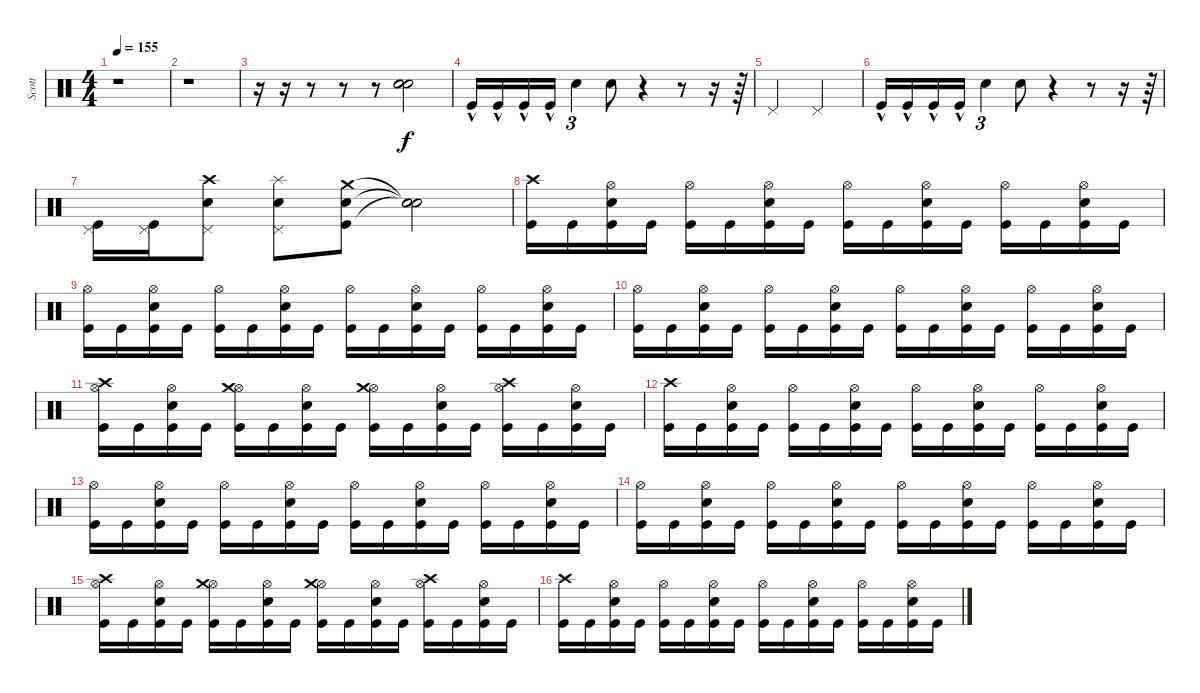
\track ("Scott" "Scott") {instrument percussion}
\staff {score}
\articulation defaults
\ts (4 4)
\tempo 155
\clef neutral
\ks c
r.1{dy f} |
r.1 |
r.16 r.16 r.8 r.8 r.8 ("Snare (hit)" "Snare (hit)" "Snare (hit)").2 |
"Kick (hit)"{hac}.16 "Kick (hit)"{hac}.16 "Kick (hit)"{hac}.16 "Kick (hit)"{hac}.16 "Snare (hit) 2".4{tu (3 2)} "Snare (hit) 2".8 r.4 r.8 r.16 r.64 |
"Pedal Hi-Hat (hit)".2 "Pedal Hi-Hat (hit)".2 |
"Kick (hit)"{hac}.16 "Kick (hit)"{hac}.16 "Kick (hit)"{hac}.16 "Kick (hit)"{hac}.16 "Snare (hit) 2".4{tu (3 2)} "Snare (hit) 2".8 r.4 r.8 r.16 r.64 |
("Pedal Hi-Hat (hit)" "Kick (hit)").16 ("Pedal Hi-Hat (hit)" "Kick (hit)").16 ("Crash high (hit)" "Pedal Hi-Hat (hit)" "Snare (hit) 2").8 ("Splash (hit)" "Pedal Hi-Hat (hit)" "Snare (hit) 2").8 ("Crash medium (hit)" "Kick (hit)" "Snare (hit) 2").8 ("Snare (hit)"{t} "Snare (hit)"{t} "Snare (hit)"{t}).2 |
("Crash high (hit)" "Kick (hit)").16 "Kick (hit)".16 ("Hi-Hat (open)" "Snare (hit) 2" "Kick (hit)").16 "Kick (hit)".16 ("Hi-Hat (open)" "Kick (hit)").16 "Kick (hit)".16 ("Hi-Hat (open)" "Snare (hit) 2" "Kick (hit)").16 "Kick (hit)".16 ("Hi-Hat (open)" "Kick (hit)").16 "Kick (hit)".16 ("Hi-Hat (open)" "Snare (hit) 2" "Kick (hit)").16 "Kick (hit)".16 ("Hi-Hat (open)" "Kick (hit)").16 "Kick (hit)".16 ("Hi-Hat (open)" "Snare (hit) 2" "Kick (hit)").16 "Kick (hit)".16 |
("Hi-Hat (open)" "Kick (hit)").16 "Kick (hit)".16 ("Hi-Hat (open)" "Snare (hit) 2" "Kick (hit)").16 "Kick (hit)".16 ("Hi-Hat (open)" "Kick (hit)").16 "Kick (hit)".16 ("Hi-Hat (open)" "Snare (hit) 2" "Kick (hit)").16 "Kick (hit)".16 ("Hi-Hat (open)" "Kick (hit)").16 "Kick (hit)".16 ("Hi-Hat (open)" "Snare (hit) 2" "Kick (hit)").16 "Kick (hit)".16 ("Hi-Hat (open)" "Kick (hit)").16 "Kick (hit)".16 ("Hi-Hat (open)" "Snare (hit) 2" "Kick (hit)").16 "Kick (hit)".16 |
("Hi-Hat (open)" "Kick (hit)").16 "Kick (hit)".16 ("Hi-Hat (open)" "Snare (hit) 2" "Kick (hit)").16 "Kick (hit)".16 ("Hi-Hat (open)" "Kick (hit)").16 "Kick (hit)".16 ("Hi-Hat (open)" "Snare (hit) 2" "Kick (hit)").16 "Kick (hit)".16 ("Hi-Hat (open)" "Kick (hit)").16 "Kick (hit)".16 ("Hi-Hat (open)" "Snare (hit) 2" "Kick (hit)").16 "Kick (hit)".16 ("Hi-Hat (open)" "Kick (hit)").16 "Kick (hit)".16 ("Hi-Hat (open)" "Snare (hit) 2" "Kick (hit)").16 "Kick (hit)".16 |
("Hi-Hat (open)" "Crash high (hit)" "Kick (hit)").16 "Kick (hit)".16 ("Hi-Hat (open)" "Snare (hit) 2" "Kick (hit)").16 "Kick (hit)".16 ("Hi-Hat (open)" "Crash medium (hit)" "Kick (hit)").16 "Kick (hit)".16 ("Hi-Hat (open)" "Snare (hit) 2" "Kick (hit)").16 "Kick (hit)".16 ("Hi-Hat (open)" "Crash medium (hit)" "Kick (hit)").16 "Kick (hit)".16 ("Hi-Hat (open)" "Snare (hit) 2" "Kick (hit)").16 "Kick (hit)".16 ("Hi-Hat (open)" "Crash high (hit)" "Kick (hit)").16 "Kick (hit)".16 ("Hi-Hat (open)" "Snare (hit) 2" "Kick (hit)").16 "Kick (hit)".16 |
("Crash high (hit)" "Kick (hit)").16 "Kick (hit)".16 ("Hi-Hat (open)" "Snare (hit) 2" "Kick (hit)").16 "Kick (hit)".16 ("Hi-Hat (open)" "Kick (hit)").16 "Kick (hit)".16 ("Hi-Hat (open)" "Snare (hit) 2" "Kick (hit)").16 "Kick (hit)".16 ("Hi-Hat (open)" "Kick (hit)").16 "Kick (hit)".16 ("Hi-Hat (open)" "Snare (hit) 2" "Kick (hit)").16 "Kick (hit)".16 ("Hi-Hat (open)" "Kick (hit)").16 "Kick (hit)".16 ("Hi-Hat (open)" "Snare (hit) 2" "Kick (hit)").16 "Kick (hit)".16 |
("Hi-Hat (open)" "Kick (hit)").16 "Kick (hit)".16 ("Hi-Hat (open)" "Snare (hit) 2" "Kick (hit)").16 "Kick (hit)".16 ("Hi-Hat (open)" "Kick (hit)").16 "Kick (hit)".16 ("Hi-Hat (open)" "Snare (hit) 2" "Kick (hit)").16 "Kick (hit)".16 ("Hi-Hat (open)" "Kick (hit)").16 "Kick (hit)".16 ("Hi-Hat (open)" "Snare (hit) 2" "Kick (hit)").16 "Kick (hit)".16 ("Hi-Hat (open)" "Kick (hit)").16 "Kick (hit)".16 ("Hi-Hat (open)" "Snare (hit) 2" "Kick (hit)").16 "Kick (hit)".16 |
("Hi-Hat (open)" "Kick (hit)").16 "Kick (hit)".16 ("Hi-Hat (open)" "Snare (hit) 2" "Kick (hit)").16 "Kick (hit)".16 ("Hi-Hat (open)" "Kick (hit)").16 "Kick (hit)".16 ("Hi-Hat (open)" "Snare (hit) 2" "Kick (hit)").16 "Kick (hit)".16 ("Hi-Hat (open)" "Kick (hit)").16 "Kick (hit)".16 ("Hi-Hat (open)" "Snare (hit) 2" "Kick (hit)").16 "Kick (hit)".16 ("Hi-Hat (open)" "Kick (hit)").16 "Kick (hit)".16 ("Hi-Hat (open)" "Snare (hit) 2" "Kick (hit)").16 "Kick (hit)".16 |
("Hi-Hat (open)" "Crash high (hit)" "Kick (hit)").16 "Kick (hit)".16 ("Hi-Hat (open)" "Snare (hit) 2" "Kick (hit)").16 "Kick (hit)".16 ("Hi-Hat (open)" "Crash medium (hit)" "Kick (hit)").16 "Kick (hit)".16 ("Hi-Hat (open)" "Snare (hit) 2" "Kick (hit)").16 "Kick (hit)".16 ("Hi-Hat (open)" "Crash medium (hit)" "Kick (hit)").16 "Kick (hit)".16 ("Hi-Hat (open)" "Snare (hit) 2" "Kick (hit)").16 "Kick (hit)".16 ("Hi-Hat (open)" "Crash high (hit)" "Kick (hit)").16 "Kick (hit)".16 ("Hi-Hat (open)" "Snare (hit) 2" "Kick (hit)").16 "Kick (hit)".16 |
("Crash high (hit)" "Kick (hit)").16 "Kick (hit)".16 ("Hi-Hat (open)" "Snare (hit) 2" "Kick (hit)").16 "Kick (hit)".16 ("Hi-Hat (open)" "Kick (hit)").16 "Kick (hit)".16 ("Hi-Hat (open)" "Snare (hit) 2" "Kick (hit)").16 "Kick (hit)".16 ("Hi-Hat (open)" "Kick (hit)").16 "Kick (hit)".16 ("Hi-Hat (open)" "Snare (hit) 2" "Kick (hit)").16 "Kick (hit)".16 ("Hi-Hat (open)" "Kick (hit)").16 "Kick (hit)".16 ("Hi-Hat (open)" "Snare (hit) 2" "Kick (hit)").16 "Kick (hit)".16
